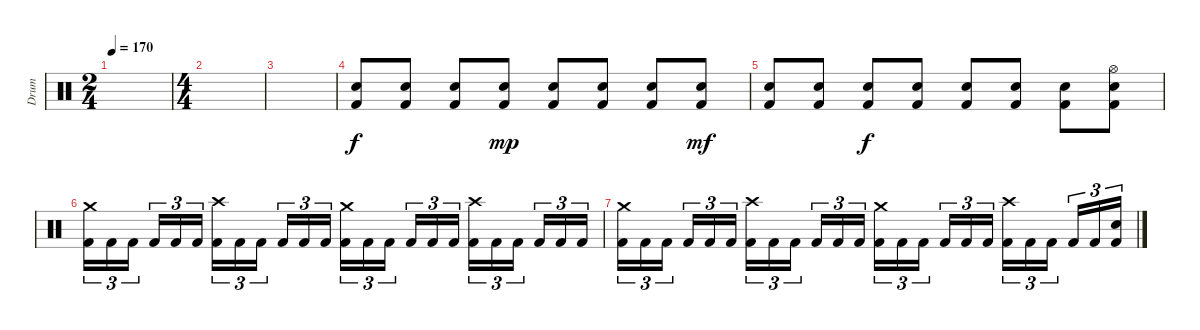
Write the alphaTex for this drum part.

\track ("Drum" "Drum") {instrument percussion}
\staff {score}
\articulation defaults
\ts (2 4)
\tempo 170
\clef neutral
\ks c
|
\ts (4 4)
|
|
("Electric Snare (hit)" "Kick (hit) 2").8 ("Electric Snare (hit)" "Kick (hit) 2").8 ("Electric Snare (hit)" "Kick (hit) 2").8 ("Electric Snare (hit)" "Kick (hit) 2").8{dy mp} ("Electric Snare (hit)" "Kick (hit) 2").8 ("Electric Snare (hit)" "Kick (hit) 2").8 ("Electric Snare (hit)" "Kick (hit) 2").8 ("Electric Snare (hit)" "Kick (hit) 2").8{dy mf} |
("Electric Snare (hit)" "Kick (hit) 2").8 ("Electric Snare (hit)" "Kick (hit) 2").8 ("Electric Snare (hit)" "Kick (hit) 2").8{dy f} ("Electric Snare (hit)" "Kick (hit) 2").8 ("Electric Snare (hit)" "Kick (hit) 2").8 ("Electric Snare (hit)" "Kick (hit) 2").8 ("Electric Snare (hit)" "Kick (hit) 2").8 ("Hi-Hat (open)" "Electric Snare (hit)" "Kick (hit) 2").8 |
("Crash medium (hit)" "Kick (hit) 2").16{tu (3 2)} "Kick (hit) 2".16{tu (3 2)} "Kick (hit) 2".16{tu (3 2) beam splitsecondary} "Kick (hit) 2".16{tu (3 2)} "Kick (hit) 2".16{tu (3 2)} "Kick (hit) 2".16{tu (3 2)} ("Crash high (hit)" "Kick (hit) 2").16{tu (3 2)} "Kick (hit) 2".16{tu (3 2)} "Kick (hit) 2".16{tu (3 2) beam splitsecondary} "Kick (hit) 2".16{tu (3 2)} "Kick (hit) 2".16{tu (3 2)} "Kick (hit) 2".16{tu (3 2)} ("Crash medium (hit)" "Kick (hit) 2").16{tu (3 2)} "Kick (hit) 2".16{tu (3 2)} "Kick (hit) 2".16{tu (3 2) beam splitsecondary} "Kick (hit) 2".16{tu (3 2)} "Kick (hit) 2".16{tu (3 2)} "Kick (hit) 2".16{tu (3 2)} ("Crash high (hit)" "Kick (hit) 2").16{tu (3 2)} "Kick (hit) 2".16{tu (3 2)} "Kick (hit) 2".16{tu (3 2) beam splitsecondary} "Kick (hit) 2".16{tu (3 2)} "Kick (hit) 2".16{tu (3 2)} "Kick (hit) 2".16{tu (3 2)} |
("Crash medium (hit)" "Kick (hit) 2").16{tu (3 2)} "Kick (hit) 2".16{tu (3 2)} "Kick (hit) 2".16{tu (3 2) beam splitsecondary} "Kick (hit) 2".16{tu (3 2)} "Kick (hit) 2".16{tu (3 2)} "Kick (hit) 2".16{tu (3 2)} ("Crash high (hit)" "Kick (hit) 2").16{tu (3 2)} "Kick (hit) 2".16{tu (3 2)} "Kick (hit) 2".16{tu (3 2) beam splitsecondary} "Kick (hit) 2".16{tu (3 2)} "Kick (hit) 2".16{tu (3 2)} "Kick (hit) 2".16{tu (3 2)} ("Crash medium (hit)" "Kick (hit) 2").16{tu (3 2)} "Kick (hit) 2".16{tu (3 2)} "Kick (hit) 2".16{tu (3 2) beam splitsecondary} "Kick (hit) 2".16{tu (3 2)} "Kick (hit) 2".16{tu (3 2)} "Kick (hit) 2".16{tu (3 2)} ("Crash high (hit)" "Kick (hit) 2").16{tu (3 2)} "Kick (hit) 2".16{tu (3 2)} "Kick (hit) 2".16{tu (3 2) beam splitsecondary} "Kick (hit) 2".16{tu (3 2)} "Kick (hit) 2".16{tu (3 2)} ("Electric Snare (hit)" "Kick (hit) 2").16{tu (3 2)}
